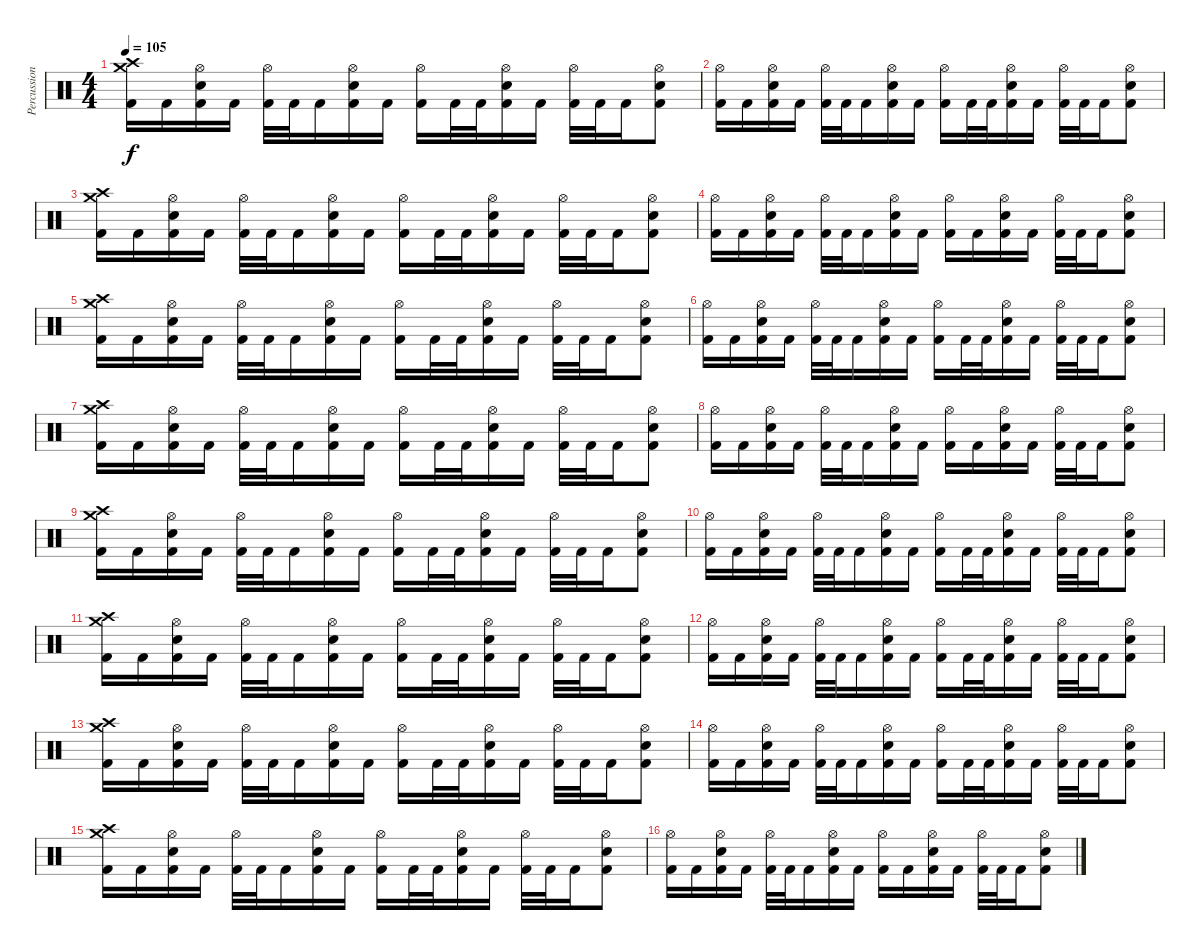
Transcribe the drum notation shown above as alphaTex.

\track ("Percussion" "Percussion") {instrument percussion}
\staff {score}
\articulation defaults
\ts (4 4)
\tempo 105
\clef neutral
\ks c
("Crash high (hit)" "Crash medium (hit)" "Kick (hit) 2").16{dy f} "Kick (hit) 2".16 ("Hi-Hat (open)" "Electric Snare (hit)" "Kick (hit) 2").16 "Kick (hit) 2".16 ("Hi-Hat (open)" "Kick (hit) 2").32 "Kick (hit) 2".32 "Kick (hit) 2".16 ("Hi-Hat (open)" "Electric Snare (hit)" "Kick (hit) 2").16 "Kick (hit) 2".16 ("Hi-Hat (open)" "Kick (hit) 2").16 "Kick (hit) 2".32 "Kick (hit) 2".32 ("Hi-Hat (open)" "Electric Snare (hit)" "Kick (hit) 2").16 "Kick (hit) 2".16 ("Hi-Hat (open)" "Kick (hit) 2").32 "Kick (hit) 2".32 "Kick (hit) 2".16 ("Hi-Hat (open)" "Electric Snare (hit)" "Kick (hit) 2").8 |
("Hi-Hat (open)" "Kick (hit) 2").16 "Kick (hit) 2".16 ("Hi-Hat (open)" "Electric Snare (hit)" "Kick (hit) 2").16 "Kick (hit) 2".16 ("Hi-Hat (open)" "Kick (hit) 2").32 "Kick (hit) 2".32 "Kick (hit) 2".16 ("Hi-Hat (open)" "Electric Snare (hit)" "Kick (hit) 2").16 "Kick (hit) 2".16 ("Hi-Hat (open)" "Kick (hit) 2").16 "Kick (hit) 2".32 "Kick (hit) 2".32 ("Hi-Hat (open)" "Electric Snare (hit)" "Kick (hit) 2").16 "Kick (hit) 2".16 ("Hi-Hat (open)" "Kick (hit) 2").32 "Kick (hit) 2".32 "Kick (hit) 2".16 ("Hi-Hat (open)" "Electric Snare (hit)" "Kick (hit) 2").8 |
("Crash high (hit)" "Crash medium (hit)" "Kick (hit) 2").16 "Kick (hit) 2".16 ("Hi-Hat (open)" "Electric Snare (hit)" "Kick (hit) 2").16 "Kick (hit) 2".16 ("Hi-Hat (open)" "Kick (hit) 2").32 "Kick (hit) 2".32 "Kick (hit) 2".16 ("Hi-Hat (open)" "Electric Snare (hit)" "Kick (hit) 2").16 "Kick (hit) 2".16 ("Hi-Hat (open)" "Kick (hit) 2").16 "Kick (hit) 2".32 "Kick (hit) 2".32 ("Hi-Hat (open)" "Electric Snare (hit)" "Kick (hit) 2").16 "Kick (hit) 2".16 ("Hi-Hat (open)" "Kick (hit) 2").32 "Kick (hit) 2".32 "Kick (hit) 2".16 ("Hi-Hat (open)" "Electric Snare (hit)" "Kick (hit) 2").8 |
("Hi-Hat (open)" "Kick (hit) 2").16 "Kick (hit) 2".16 ("Hi-Hat (open)" "Electric Snare (hit)" "Kick (hit) 2").16 "Kick (hit) 2".16 ("Hi-Hat (open)" "Kick (hit) 2").32 "Kick (hit) 2".32 "Kick (hit) 2".16 ("Hi-Hat (open)" "Electric Snare (hit)" "Kick (hit) 2").16 "Kick (hit) 2".16 ("Hi-Hat (open)" "Kick (hit) 2").16 "Kick (hit) 2".16 ("Hi-Hat (open)" "Electric Snare (hit)" "Kick (hit) 2").16 "Kick (hit) 2".16 ("Hi-Hat (open)" "Kick (hit) 2").32 "Kick (hit) 2".32 "Kick (hit) 2".16 ("Hi-Hat (open)" "Electric Snare (hit)" "Kick (hit) 2").8 |
("Crash high (hit)" "Crash medium (hit)" "Kick (hit) 2").16 "Kick (hit) 2".16 ("Hi-Hat (open)" "Electric Snare (hit)" "Kick (hit) 2").16 "Kick (hit) 2".16 ("Hi-Hat (open)" "Kick (hit) 2").32 "Kick (hit) 2".32 "Kick (hit) 2".16 ("Hi-Hat (open)" "Electric Snare (hit)" "Kick (hit) 2").16 "Kick (hit) 2".16 ("Hi-Hat (open)" "Kick (hit) 2").16 "Kick (hit) 2".32 "Kick (hit) 2".32 ("Hi-Hat (open)" "Electric Snare (hit)" "Kick (hit) 2").16 "Kick (hit) 2".16 ("Hi-Hat (open)" "Kick (hit) 2").32 "Kick (hit) 2".32 "Kick (hit) 2".16 ("Hi-Hat (open)" "Electric Snare (hit)" "Kick (hit) 2").8 |
("Hi-Hat (open)" "Kick (hit) 2").16 "Kick (hit) 2".16 ("Hi-Hat (open)" "Electric Snare (hit)" "Kick (hit) 2").16 "Kick (hit) 2".16 ("Hi-Hat (open)" "Kick (hit) 2").32 "Kick (hit) 2".32 "Kick (hit) 2".16 ("Hi-Hat (open)" "Electric Snare (hit)" "Kick (hit) 2").16 "Kick (hit) 2".16 ("Hi-Hat (open)" "Kick (hit) 2").16 "Kick (hit) 2".32 "Kick (hit) 2".32 ("Hi-Hat (open)" "Electric Snare (hit)" "Kick (hit) 2").16 "Kick (hit) 2".16 ("Hi-Hat (open)" "Kick (hit) 2").32 "Kick (hit) 2".32 "Kick (hit) 2".16 ("Hi-Hat (open)" "Electric Snare (hit)" "Kick (hit) 2").8 |
("Crash high (hit)" "Crash medium (hit)" "Kick (hit) 2").16 "Kick (hit) 2".16 ("Hi-Hat (open)" "Electric Snare (hit)" "Kick (hit) 2").16 "Kick (hit) 2".16 ("Hi-Hat (open)" "Kick (hit) 2").32 "Kick (hit) 2".32 "Kick (hit) 2".16 ("Hi-Hat (open)" "Electric Snare (hit)" "Kick (hit) 2").16 "Kick (hit) 2".16 ("Hi-Hat (open)" "Kick (hit) 2").16 "Kick (hit) 2".32 "Kick (hit) 2".32 ("Hi-Hat (open)" "Electric Snare (hit)" "Kick (hit) 2").16 "Kick (hit) 2".16 ("Hi-Hat (open)" "Kick (hit) 2").32 "Kick (hit) 2".32 "Kick (hit) 2".16 ("Hi-Hat (open)" "Electric Snare (hit)" "Kick (hit) 2").8 |
("Hi-Hat (open)" "Kick (hit) 2").16 "Kick (hit) 2".16 ("Hi-Hat (open)" "Electric Snare (hit)" "Kick (hit) 2").16 "Kick (hit) 2".16 ("Hi-Hat (open)" "Kick (hit) 2").32 "Kick (hit) 2".32 "Kick (hit) 2".16 ("Hi-Hat (open)" "Electric Snare (hit)" "Kick (hit) 2").16 "Kick (hit) 2".16 ("Hi-Hat (open)" "Kick (hit) 2").16 "Kick (hit) 2".16 ("Hi-Hat (open)" "Electric Snare (hit)" "Kick (hit) 2").16 "Kick (hit) 2".16 ("Hi-Hat (open)" "Kick (hit) 2").32 "Kick (hit) 2".32 "Kick (hit) 2".16 ("Hi-Hat (open)" "Electric Snare (hit)" "Kick (hit) 2").8 |
("Crash high (hit)" "Crash medium (hit)" "Kick (hit) 2").16 "Kick (hit) 2".16 ("Hi-Hat (open)" "Electric Snare (hit)" "Kick (hit) 2").16 "Kick (hit) 2".16 ("Hi-Hat (open)" "Kick (hit) 2").32 "Kick (hit) 2".32 "Kick (hit) 2".16 ("Hi-Hat (open)" "Electric Snare (hit)" "Kick (hit) 2").16 "Kick (hit) 2".16 ("Hi-Hat (open)" "Kick (hit) 2").16 "Kick (hit) 2".32 "Kick (hit) 2".32 ("Hi-Hat (open)" "Electric Snare (hit)" "Kick (hit) 2").16 "Kick (hit) 2".16 ("Hi-Hat (open)" "Kick (hit) 2").32 "Kick (hit) 2".32 "Kick (hit) 2".16 ("Hi-Hat (open)" "Electric Snare (hit)" "Kick (hit) 2").8 |
("Hi-Hat (open)" "Kick (hit) 2").16 "Kick (hit) 2".16 ("Hi-Hat (open)" "Electric Snare (hit)" "Kick (hit) 2").16 "Kick (hit) 2".16 ("Hi-Hat (open)" "Kick (hit) 2").32 "Kick (hit) 2".32 "Kick (hit) 2".16 ("Hi-Hat (open)" "Electric Snare (hit)" "Kick (hit) 2").16 "Kick (hit) 2".16 ("Hi-Hat (open)" "Kick (hit) 2").16 "Kick (hit) 2".32 "Kick (hit) 2".32 ("Hi-Hat (open)" "Electric Snare (hit)" "Kick (hit) 2").16 "Kick (hit) 2".16 ("Hi-Hat (open)" "Kick (hit) 2").32 "Kick (hit) 2".32 "Kick (hit) 2".16 ("Hi-Hat (open)" "Electric Snare (hit)" "Kick (hit) 2").8 |
("Crash high (hit)" "Crash medium (hit)" "Kick (hit) 2").16 "Kick (hit) 2".16 ("Hi-Hat (open)" "Electric Snare (hit)" "Kick (hit) 2").16 "Kick (hit) 2".16 ("Hi-Hat (open)" "Kick (hit) 2").32 "Kick (hit) 2".32 "Kick (hit) 2".16 ("Hi-Hat (open)" "Electric Snare (hit)" "Kick (hit) 2").16 "Kick (hit) 2".16 ("Hi-Hat (open)" "Kick (hit) 2").16 "Kick (hit) 2".32 "Kick (hit) 2".32 ("Hi-Hat (open)" "Electric Snare (hit)" "Kick (hit) 2").16 "Kick (hit) 2".16 ("Hi-Hat (open)" "Kick (hit) 2").32 "Kick (hit) 2".32 "Kick (hit) 2".16 ("Hi-Hat (open)" "Electric Snare (hit)" "Kick (hit) 2").8 |
("Hi-Hat (open)" "Kick (hit) 2").16 "Kick (hit) 2".16 ("Hi-Hat (open)" "Electric Snare (hit)" "Kick (hit) 2").16 "Kick (hit) 2".16 ("Hi-Hat (open)" "Kick (hit) 2").32 "Kick (hit) 2".32 "Kick (hit) 2".16 ("Hi-Hat (open)" "Electric Snare (hit)" "Kick (hit) 2").16 "Kick (hit) 2".16 ("Hi-Hat (open)" "Kick (hit) 2").16 "Kick (hit) 2".32 "Kick (hit) 2".32 ("Hi-Hat (open)" "Electric Snare (hit)" "Kick (hit) 2").16 "Kick (hit) 2".16 ("Hi-Hat (open)" "Kick (hit) 2").32 "Kick (hit) 2".32 "Kick (hit) 2".16 ("Hi-Hat (open)" "Electric Snare (hit)" "Kick (hit) 2").8 |
("Crash high (hit)" "Crash medium (hit)" "Kick (hit) 2").16 "Kick (hit) 2".16 ("Hi-Hat (open)" "Electric Snare (hit)" "Kick (hit) 2").16 "Kick (hit) 2".16 ("Hi-Hat (open)" "Kick (hit) 2").32 "Kick (hit) 2".32 "Kick (hit) 2".16 ("Hi-Hat (open)" "Electric Snare (hit)" "Kick (hit) 2").16 "Kick (hit) 2".16 ("Hi-Hat (open)" "Kick (hit) 2").16 "Kick (hit) 2".32 "Kick (hit) 2".32 ("Hi-Hat (open)" "Electric Snare (hit)" "Kick (hit) 2").16 "Kick (hit) 2".16 ("Hi-Hat (open)" "Kick (hit) 2").32 "Kick (hit) 2".32 "Kick (hit) 2".16 ("Hi-Hat (open)" "Electric Snare (hit)" "Kick (hit) 2").8 |
("Hi-Hat (open)" "Kick (hit) 2").16 "Kick (hit) 2".16 ("Hi-Hat (open)" "Electric Snare (hit)" "Kick (hit) 2").16 "Kick (hit) 2".16 ("Hi-Hat (open)" "Kick (hit) 2").32 "Kick (hit) 2".32 "Kick (hit) 2".16 ("Hi-Hat (open)" "Electric Snare (hit)" "Kick (hit) 2").16 "Kick (hit) 2".16 ("Hi-Hat (open)" "Kick (hit) 2").16 "Kick (hit) 2".32 "Kick (hit) 2".32 ("Hi-Hat (open)" "Electric Snare (hit)" "Kick (hit) 2").16 "Kick (hit) 2".16 ("Hi-Hat (open)" "Kick (hit) 2").32 "Kick (hit) 2".32 "Kick (hit) 2".16 ("Hi-Hat (open)" "Electric Snare (hit)" "Kick (hit) 2").8 |
("Crash high (hit)" "Crash medium (hit)" "Kick (hit) 2").16 "Kick (hit) 2".16 ("Hi-Hat (open)" "Electric Snare (hit)" "Kick (hit) 2").16 "Kick (hit) 2".16 ("Hi-Hat (open)" "Kick (hit) 2").32 "Kick (hit) 2".32 "Kick (hit) 2".16 ("Hi-Hat (open)" "Electric Snare (hit)" "Kick (hit) 2").16 "Kick (hit) 2".16 ("Hi-Hat (open)" "Kick (hit) 2").16 "Kick (hit) 2".32 "Kick (hit) 2".32 ("Hi-Hat (open)" "Electric Snare (hit)" "Kick (hit) 2").16 "Kick (hit) 2".16 ("Hi-Hat (open)" "Kick (hit) 2").32 "Kick (hit) 2".32 "Kick (hit) 2".16 ("Hi-Hat (open)" "Electric Snare (hit)" "Kick (hit) 2").8 |
("Hi-Hat (open)" "Kick (hit) 2").16 "Kick (hit) 2".16 ("Hi-Hat (open)" "Electric Snare (hit)" "Kick (hit) 2").16 "Kick (hit) 2".16 ("Hi-Hat (open)" "Kick (hit) 2").32 "Kick (hit) 2".32 "Kick (hit) 2".16 ("Hi-Hat (open)" "Electric Snare (hit)" "Kick (hit) 2").16 "Kick (hit) 2".16 ("Hi-Hat (open)" "Kick (hit) 2").16 "Kick (hit) 2".16 ("Hi-Hat (open)" "Electric Snare (hit)" "Kick (hit) 2").16 "Kick (hit) 2".16 ("Hi-Hat (open)" "Kick (hit) 2").32 "Kick (hit) 2".32 "Kick (hit) 2".16 ("Hi-Hat (open)" "Electric Snare (hit)" "Kick (hit) 2").8
